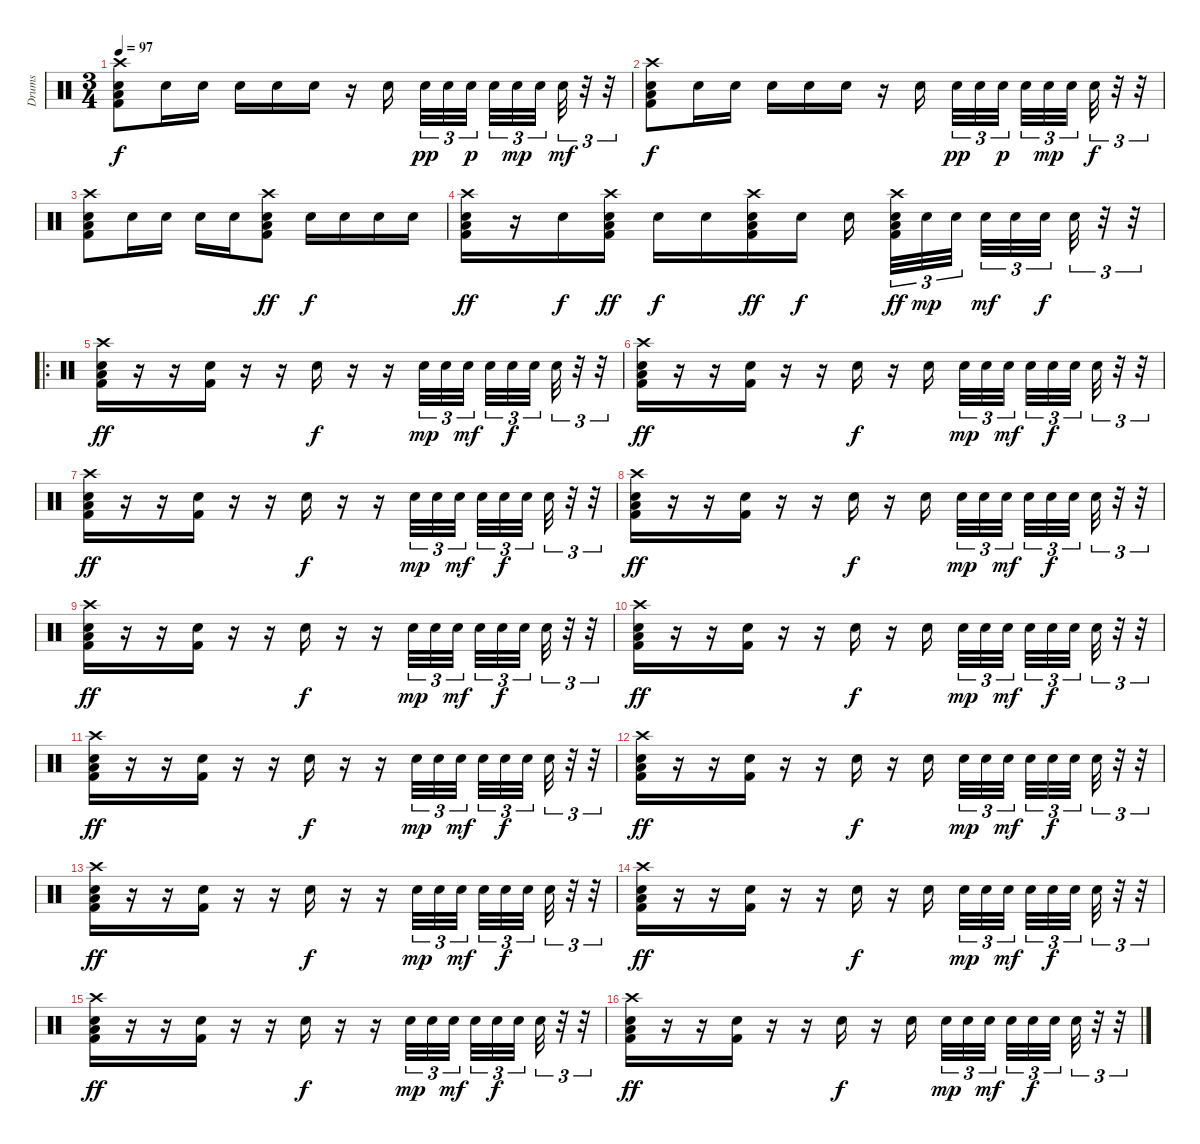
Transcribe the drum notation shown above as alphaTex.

\track ("Drums" "Drums") {instrument percussion}
\staff {score}
\articulation defaults
\ts (3 4)
\tempo 97
\clef neutral
\ks c
("Crash high (hit)" "Low Floor Tom (hit)" "Electric Snare (hit)" "Kick (hit) 2").8{dy f} "Electric Snare (hit)".16 "Electric Snare (hit)".16 "Electric Snare (hit)".16 "Electric Snare (hit)".16 "Electric Snare (hit)".16 r.16 "Electric Snare (hit)".16 "Electric Snare (hit)".32{tu (3 2) dy pp} "Electric Snare (hit)".32{tu (3 2)} "Electric Snare (hit)".32{tu (3 2) dy p} "Electric Snare (hit)".32{tu (3 2)} "Electric Snare (hit)".32{tu (3 2) dy mp} "Electric Snare (hit)".32{tu (3 2)} "Electric Snare (hit)".32{tu (3 2) dy mf} r.32{tu (3 2)} r.32{tu (3 2)} |
("Crash high (hit)" "Low Floor Tom (hit)" "Electric Snare (hit)" "Kick (hit) 2").8{dy f} "Electric Snare (hit)".16 "Electric Snare (hit)".16 "Electric Snare (hit)".16 "Electric Snare (hit)".16 "Electric Snare (hit)".16 r.16 "Electric Snare (hit)".16 "Electric Snare (hit)".32{tu (3 2) dy pp} "Electric Snare (hit)".32{tu (3 2)} "Electric Snare (hit)".32{tu (3 2) dy p} "Electric Snare (hit)".32{tu (3 2)} "Electric Snare (hit)".32{tu (3 2) dy mp} "Electric Snare (hit)".32{tu (3 2)} "Electric Snare (hit)".32{tu (3 2) dy f} r.32{tu (3 2)} r.32{tu (3 2)} |
("Crash high (hit)" "Low Floor Tom (hit)" "Electric Snare (hit)" "Kick (hit) 2").8 "Electric Snare (hit)".16 "Electric Snare (hit)".16 "Electric Snare (hit)".16 "Electric Snare (hit)".16 ("Crash high (hit)" "Low Floor Tom (hit)" "Electric Snare (hit)" "Kick (hit) 2").8{dy ff} "Electric Snare (hit)".16{dy f} "Electric Snare (hit)".16 "Electric Snare (hit)".16 "Electric Snare (hit)".16 |
("Crash high (hit)" "Low Floor Tom (hit)" "Electric Snare (hit)" "Kick (hit) 2").16{dy ff} r.16 "Electric Snare (hit)".16{dy f} ("Crash high (hit)" "Low Floor Tom (hit)" "Electric Snare (hit)" "Kick (hit) 2").16{dy ff} "Electric Snare (hit)".16{dy f} "Electric Snare (hit)".16 ("Crash high (hit)" "Low Floor Tom (hit)" "Electric Snare (hit)" "Kick (hit) 2").16{dy ff} "Electric Snare (hit)".16{dy f} "Electric Snare (hit)".16 ("Crash high (hit)" "Low Floor Tom (hit)" "Electric Snare (hit)" "Kick (hit) 2").32{tu (3 2) dy ff} "Electric Snare (hit)".32{tu (3 2) dy mp} "Electric Snare (hit)".32{tu (3 2)} "Electric Snare (hit)".32{tu (3 2) dy mf} "Electric Snare (hit)".32{tu (3 2)} "Electric Snare (hit)".32{tu (3 2) dy f} "Electric Snare (hit)".32{tu (3 2)} r.32{tu (3 2)} r.32{tu (3 2)} |
\ro
("Crash high (hit)" "Low Floor Tom (hit)" "Electric Snare (hit)" "Kick (hit) 2").16{dy ff} r.16 r.16 ("Electric Snare (hit)" "Kick (hit) 2").16 r.16 r.16 "Electric Snare (hit)".16{dy f} r.16 r.16 "Electric Snare (hit)".32{tu (3 2) dy mp} "Electric Snare (hit)".32{tu (3 2)} "Electric Snare (hit)".32{tu (3 2) dy mf} "Electric Snare (hit)".32{tu (3 2)} "Electric Snare (hit)".32{tu (3 2) dy f} "Electric Snare (hit)".32{tu (3 2)} "Electric Snare (hit)".32{tu (3 2)} r.32{tu (3 2)} r.32{tu (3 2)} |
("Crash high (hit)" "Low Floor Tom (hit)" "Electric Snare (hit)" "Kick (hit) 2").16{dy ff} r.16 r.16 ("Electric Snare (hit)" "Kick (hit) 2").16 r.16 r.16 "Electric Snare (hit)".16{dy f} r.16 "Electric Snare (hit)".16 "Electric Snare (hit)".32{tu (3 2) dy mp} "Electric Snare (hit)".32{tu (3 2)} "Electric Snare (hit)".32{tu (3 2) dy mf} "Electric Snare (hit)".32{tu (3 2)} "Electric Snare (hit)".32{tu (3 2) dy f} "Electric Snare (hit)".32{tu (3 2)} "Electric Snare (hit)".32{tu (3 2)} r.32{tu (3 2)} r.32{tu (3 2)} |
("Crash high (hit)" "Low Floor Tom (hit)" "Electric Snare (hit)" "Kick (hit) 2").16{dy ff} r.16 r.16 ("Electric Snare (hit)" "Kick (hit) 2").16 r.16 r.16 "Electric Snare (hit)".16{dy f} r.16 r.16 "Electric Snare (hit)".32{tu (3 2) dy mp} "Electric Snare (hit)".32{tu (3 2)} "Electric Snare (hit)".32{tu (3 2) dy mf} "Electric Snare (hit)".32{tu (3 2)} "Electric Snare (hit)".32{tu (3 2) dy f} "Electric Snare (hit)".32{tu (3 2)} "Electric Snare (hit)".32{tu (3 2)} r.32{tu (3 2)} r.32{tu (3 2)} |
("Crash high (hit)" "Low Floor Tom (hit)" "Electric Snare (hit)" "Kick (hit) 2").16{dy ff} r.16 r.16 ("Electric Snare (hit)" "Kick (hit) 2").16 r.16 r.16 "Electric Snare (hit)".16{dy f} r.16 "Electric Snare (hit)".16 "Electric Snare (hit)".32{tu (3 2) dy mp} "Electric Snare (hit)".32{tu (3 2)} "Electric Snare (hit)".32{tu (3 2) dy mf} "Electric Snare (hit)".32{tu (3 2)} "Electric Snare (hit)".32{tu (3 2) dy f} "Electric Snare (hit)".32{tu (3 2)} "Electric Snare (hit)".32{tu (3 2)} r.32{tu (3 2)} r.32{tu (3 2)} |
("Crash high (hit)" "Low Floor Tom (hit)" "Electric Snare (hit)" "Kick (hit) 2").16{dy ff} r.16 r.16 ("Electric Snare (hit)" "Kick (hit) 2").16 r.16 r.16 "Electric Snare (hit)".16{dy f} r.16 r.16 "Electric Snare (hit)".32{tu (3 2) dy mp} "Electric Snare (hit)".32{tu (3 2)} "Electric Snare (hit)".32{tu (3 2) dy mf} "Electric Snare (hit)".32{tu (3 2)} "Electric Snare (hit)".32{tu (3 2) dy f} "Electric Snare (hit)".32{tu (3 2)} "Electric Snare (hit)".32{tu (3 2)} r.32{tu (3 2)} r.32{tu (3 2)} |
("Crash high (hit)" "Low Floor Tom (hit)" "Electric Snare (hit)" "Kick (hit) 2").16{dy ff} r.16 r.16 ("Electric Snare (hit)" "Kick (hit) 2").16 r.16 r.16 "Electric Snare (hit)".16{dy f} r.16 "Electric Snare (hit)".16 "Electric Snare (hit)".32{tu (3 2) dy mp} "Electric Snare (hit)".32{tu (3 2)} "Electric Snare (hit)".32{tu (3 2) dy mf} "Electric Snare (hit)".32{tu (3 2)} "Electric Snare (hit)".32{tu (3 2) dy f} "Electric Snare (hit)".32{tu (3 2)} "Electric Snare (hit)".32{tu (3 2)} r.32{tu (3 2)} r.32{tu (3 2)} |
("Crash high (hit)" "Low Floor Tom (hit)" "Electric Snare (hit)" "Kick (hit) 2").16{dy ff} r.16 r.16 ("Electric Snare (hit)" "Kick (hit) 2").16 r.16 r.16 "Electric Snare (hit)".16{dy f} r.16 r.16 "Electric Snare (hit)".32{tu (3 2) dy mp} "Electric Snare (hit)".32{tu (3 2)} "Electric Snare (hit)".32{tu (3 2) dy mf} "Electric Snare (hit)".32{tu (3 2)} "Electric Snare (hit)".32{tu (3 2) dy f} "Electric Snare (hit)".32{tu (3 2)} "Electric Snare (hit)".32{tu (3 2)} r.32{tu (3 2)} r.32{tu (3 2)} |
("Crash high (hit)" "Low Floor Tom (hit)" "Electric Snare (hit)" "Kick (hit) 2").16{dy ff} r.16 r.16 ("Electric Snare (hit)" "Kick (hit) 2").16 r.16 r.16 "Electric Snare (hit)".16{dy f} r.16 "Electric Snare (hit)".16 "Electric Snare (hit)".32{tu (3 2) dy mp} "Electric Snare (hit)".32{tu (3 2)} "Electric Snare (hit)".32{tu (3 2) dy mf} "Electric Snare (hit)".32{tu (3 2)} "Electric Snare (hit)".32{tu (3 2) dy f} "Electric Snare (hit)".32{tu (3 2)} "Electric Snare (hit)".32{tu (3 2)} r.32{tu (3 2)} r.32{tu (3 2)} |
("Crash high (hit)" "Low Floor Tom (hit)" "Electric Snare (hit)" "Kick (hit) 2").16{dy ff} r.16 r.16 ("Electric Snare (hit)" "Kick (hit) 2").16 r.16 r.16 "Electric Snare (hit)".16{dy f} r.16 r.16 "Electric Snare (hit)".32{tu (3 2) dy mp} "Electric Snare (hit)".32{tu (3 2)} "Electric Snare (hit)".32{tu (3 2) dy mf} "Electric Snare (hit)".32{tu (3 2)} "Electric Snare (hit)".32{tu (3 2) dy f} "Electric Snare (hit)".32{tu (3 2)} "Electric Snare (hit)".32{tu (3 2)} r.32{tu (3 2)} r.32{tu (3 2)} |
("Crash high (hit)" "Low Floor Tom (hit)" "Electric Snare (hit)" "Kick (hit) 2").16{dy ff} r.16 r.16 ("Electric Snare (hit)" "Kick (hit) 2").16 r.16 r.16 "Electric Snare (hit)".16{dy f} r.16 "Electric Snare (hit)".16 "Electric Snare (hit)".32{tu (3 2) dy mp} "Electric Snare (hit)".32{tu (3 2)} "Electric Snare (hit)".32{tu (3 2) dy mf} "Electric Snare (hit)".32{tu (3 2)} "Electric Snare (hit)".32{tu (3 2) dy f} "Electric Snare (hit)".32{tu (3 2)} "Electric Snare (hit)".32{tu (3 2)} r.32{tu (3 2)} r.32{tu (3 2)} |
("Crash high (hit)" "Low Floor Tom (hit)" "Electric Snare (hit)" "Kick (hit) 2").16{dy ff} r.16 r.16 ("Electric Snare (hit)" "Kick (hit) 2").16 r.16 r.16 "Electric Snare (hit)".16{dy f} r.16 r.16 "Electric Snare (hit)".32{tu (3 2) dy mp} "Electric Snare (hit)".32{tu (3 2)} "Electric Snare (hit)".32{tu (3 2) dy mf} "Electric Snare (hit)".32{tu (3 2)} "Electric Snare (hit)".32{tu (3 2) dy f} "Electric Snare (hit)".32{tu (3 2)} "Electric Snare (hit)".32{tu (3 2)} r.32{tu (3 2)} r.32{tu (3 2)} |
("Crash high (hit)" "Low Floor Tom (hit)" "Electric Snare (hit)" "Kick (hit) 2").16{dy ff} r.16 r.16 ("Electric Snare (hit)" "Kick (hit) 2").16 r.16 r.16 "Electric Snare (hit)".16{dy f} r.16 "Electric Snare (hit)".16 "Electric Snare (hit)".32{tu (3 2) dy mp} "Electric Snare (hit)".32{tu (3 2)} "Electric Snare (hit)".32{tu (3 2) dy mf} "Electric Snare (hit)".32{tu (3 2)} "Electric Snare (hit)".32{tu (3 2) dy f} "Electric Snare (hit)".32{tu (3 2)} "Electric Snare (hit)".32{tu (3 2)} r.32{tu (3 2)} r.32{tu (3 2)}
